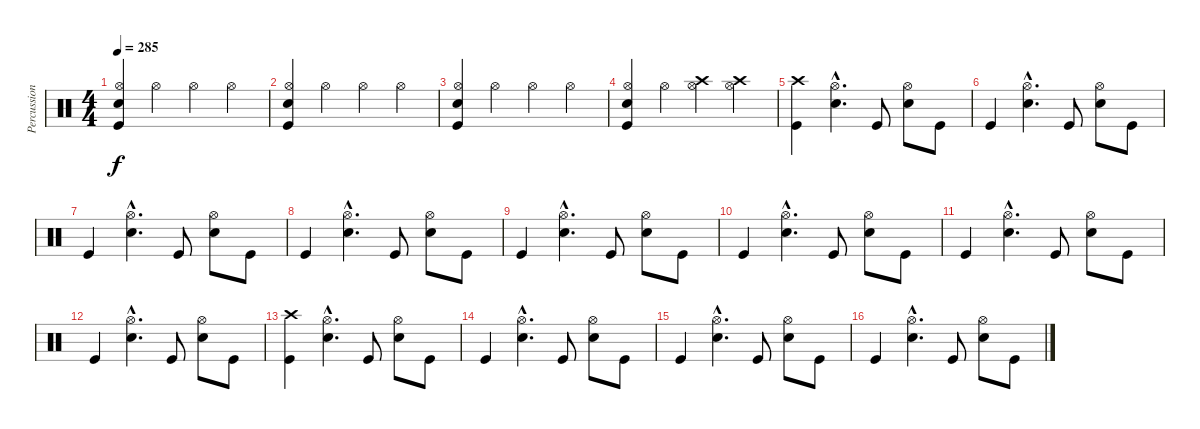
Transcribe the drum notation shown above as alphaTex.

\track ("Percussion" "Percussion") {instrument percussion}
\staff {score}
\articulation defaults
\ts (4 4)
\tempo 285
\clef neutral
\ks c
("Snare (hit) 2" "Hi-Hat (open)" "Kick (hit)").4{dy f} "Hi-Hat (open)".4 "Hi-Hat (open)".4 "Hi-Hat (open)".4 |
("Snare (hit) 2" "Hi-Hat (open)" "Kick (hit)").4 "Hi-Hat (open)".4 "Hi-Hat (open)".4 "Hi-Hat (open)".4 |
("Snare (hit) 2" "Hi-Hat (open)" "Kick (hit)").4 "Hi-Hat (open)".4 "Hi-Hat (open)".4 "Hi-Hat (open)".4 |
("Snare (hit) 2" "Hi-Hat (open)" "Kick (hit)").4 "Hi-Hat (open)".4 ("Crash high (hit)" "Hi-Hat (open)").4 ("Crash high (hit)" "Hi-Hat (open)").4 |
("Crash high (hit)" "Kick (hit)").4 ("Snare (hit) 2"{hac} "Hi-Hat (open)"{hac}).4{d} "Kick (hit)".8 ("Snare (hit) 2" "Hi-Hat (open)").8 "Kick (hit)".8 |
"Kick (hit)".4 ("Snare (hit) 2"{hac} "Hi-Hat (open)"{hac}).4{d} "Kick (hit)".8 ("Snare (hit) 2" "Hi-Hat (open)").8 "Kick (hit)".8 |
"Kick (hit)".4 ("Snare (hit) 2"{hac} "Hi-Hat (open)"{hac}).4{d} "Kick (hit)".8 ("Snare (hit) 2" "Hi-Hat (open)").8 "Kick (hit)".8 |
"Kick (hit)".4 ("Snare (hit) 2"{hac} "Hi-Hat (open)"{hac}).4{d} "Kick (hit)".8 ("Snare (hit) 2" "Hi-Hat (open)").8 "Kick (hit)".8 |
"Kick (hit)".4 ("Snare (hit) 2"{hac} "Hi-Hat (open)"{hac}).4{d} "Kick (hit)".8 ("Snare (hit) 2" "Hi-Hat (open)").8 "Kick (hit)".8 |
"Kick (hit)".4 ("Snare (hit) 2"{hac} "Hi-Hat (open)"{hac}).4{d} "Kick (hit)".8 ("Snare (hit) 2" "Hi-Hat (open)").8 "Kick (hit)".8 |
"Kick (hit)".4 ("Snare (hit) 2"{hac} "Hi-Hat (open)"{hac}).4{d} "Kick (hit)".8 ("Snare (hit) 2" "Hi-Hat (open)").8 "Kick (hit)".8 |
"Kick (hit)".4 ("Snare (hit) 2"{hac} "Hi-Hat (open)"{hac}).4{d} "Kick (hit)".8 ("Snare (hit) 2" "Hi-Hat (open)").8 "Kick (hit)".8 |
("Crash high (hit)" "Kick (hit)").4 ("Snare (hit) 2"{hac} "Hi-Hat (open)"{hac}).4{d} "Kick (hit)".8 ("Snare (hit) 2" "Hi-Hat (open)").8 "Kick (hit)".8 |
"Kick (hit)".4 ("Snare (hit) 2"{hac} "Hi-Hat (open)"{hac}).4{d} "Kick (hit)".8 ("Snare (hit) 2" "Hi-Hat (open)").8 "Kick (hit)".8 |
"Kick (hit)".4 ("Snare (hit) 2"{hac} "Hi-Hat (open)"{hac}).4{d} "Kick (hit)".8 ("Snare (hit) 2" "Hi-Hat (open)").8 "Kick (hit)".8 |
"Kick (hit)".4 ("Snare (hit) 2"{hac} "Hi-Hat (open)"{hac}).4{d} "Kick (hit)".8 ("Snare (hit) 2" "Hi-Hat (open)").8 "Kick (hit)".8
